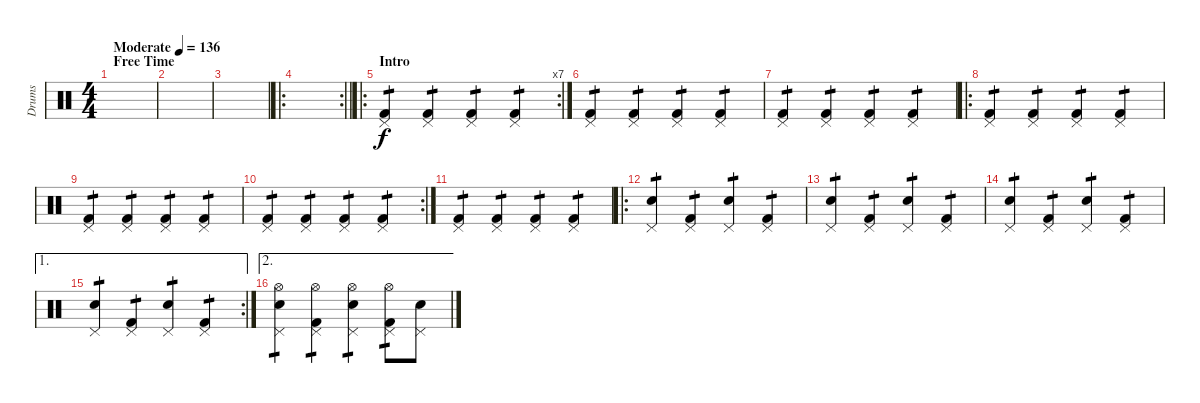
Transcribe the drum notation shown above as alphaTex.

\track ("Drums" "Drums") {instrument percussion}
\staff {score}
\articulation defaults
\ts (4 4)
\section ("" "Free Time")
\tempo (136 "Moderate")
\clef neutral
\ks c
|
|
|
\ro
\rc 2
\barLineRight lightlight
|
\ro
\rc 7
\section ("" "Intro")
("Kick (hit) 2" "Pedal Hi-Hat (hit)").4{tp 1} ("Kick (hit) 2" "Pedal Hi-Hat (hit)").4{tp 1} ("Kick (hit) 2" "Pedal Hi-Hat (hit)").4{tp 1} ("Kick (hit) 2" "Pedal Hi-Hat (hit)").4{tp 1} |
("Kick (hit) 2" "Pedal Hi-Hat (hit)").4{tp 1} ("Kick (hit) 2" "Pedal Hi-Hat (hit)").4{tp 1} ("Kick (hit) 2" "Pedal Hi-Hat (hit)").4{tp 1} ("Kick (hit) 2" "Pedal Hi-Hat (hit)").4{tp 1} |
("Kick (hit) 2" "Pedal Hi-Hat (hit)").4{tp 1} ("Kick (hit) 2" "Pedal Hi-Hat (hit)").4{tp 1} ("Kick (hit) 2" "Pedal Hi-Hat (hit)").4{tp 1} ("Kick (hit) 2" "Pedal Hi-Hat (hit)").4{tp 1} |
\ro
("Kick (hit) 2" "Pedal Hi-Hat (hit)").4{tp 1} ("Kick (hit) 2" "Pedal Hi-Hat (hit)").4{tp 1} ("Kick (hit) 2" "Pedal Hi-Hat (hit)").4{tp 1} ("Kick (hit) 2" "Pedal Hi-Hat (hit)").4{tp 1} |
("Kick (hit) 2" "Pedal Hi-Hat (hit)").4{tp 1} ("Kick (hit) 2" "Pedal Hi-Hat (hit)").4{tp 1} ("Kick (hit) 2" "Pedal Hi-Hat (hit)").4{tp 1} ("Kick (hit) 2" "Pedal Hi-Hat (hit)").4{tp 1} |
\rc 2
("Kick (hit) 2" "Pedal Hi-Hat (hit)").4{tp 1} ("Kick (hit) 2" "Pedal Hi-Hat (hit)").4{tp 1} ("Kick (hit) 2" "Pedal Hi-Hat (hit)").4{tp 1} ("Kick (hit) 2" "Pedal Hi-Hat (hit)").4{tp 1} |
("Kick (hit) 2" "Pedal Hi-Hat (hit)").4{tp 1} ("Kick (hit) 2" "Pedal Hi-Hat (hit)").4{tp 1} ("Kick (hit) 2" "Pedal Hi-Hat (hit)").4{tp 1} ("Kick (hit) 2" "Pedal Hi-Hat (hit)").4{tp 1} |
\ro
("Snare (hit) 2" "Pedal Hi-Hat (hit)").4{tp 1} ("Kick (hit) 2" "Pedal Hi-Hat (hit)").4{tp 1} ("Snare (hit) 2" "Pedal Hi-Hat (hit)").4{tp 1} ("Kick (hit) 2" "Pedal Hi-Hat (hit)").4{tp 1} |
("Snare (hit) 2" "Pedal Hi-Hat (hit)").4{tp 1} ("Kick (hit) 2" "Pedal Hi-Hat (hit)").4{tp 1} ("Snare (hit) 2" "Pedal Hi-Hat (hit)").4{tp 1} ("Kick (hit) 2" "Pedal Hi-Hat (hit)").4{tp 1} |
("Snare (hit) 2" "Pedal Hi-Hat (hit)").4{tp 1} ("Kick (hit) 2" "Pedal Hi-Hat (hit)").4{tp 1} ("Snare (hit) 2" "Pedal Hi-Hat (hit)").4{tp 1} ("Kick (hit) 2" "Pedal Hi-Hat (hit)").4{tp 1} |
\ae 1
\rc 2
("Snare (hit) 2" "Pedal Hi-Hat (hit)").4{tp 1} ("Kick (hit) 2" "Pedal Hi-Hat (hit)").4{tp 1} ("Snare (hit) 2" "Pedal Hi-Hat (hit)").4{tp 1} ("Kick (hit) 2" "Pedal Hi-Hat (hit)").4{tp 1} |
\ae 2
("Snare (hit) 2" "Pedal Hi-Hat (hit)" "Hi-Hat (open)").4{tp 1} ("Kick (hit) 2" "Pedal Hi-Hat (hit)" "Hi-Hat (open)").4{tp 1} ("Snare (hit) 2" "Pedal Hi-Hat (hit)" "Hi-Hat (open)").4{tp 1} ("Kick (hit) 2" "Pedal Hi-Hat (hit)" "Hi-Hat (open)").8{tp 1} ("Snare (hit) 2" "Pedal Hi-Hat (hit)").8
